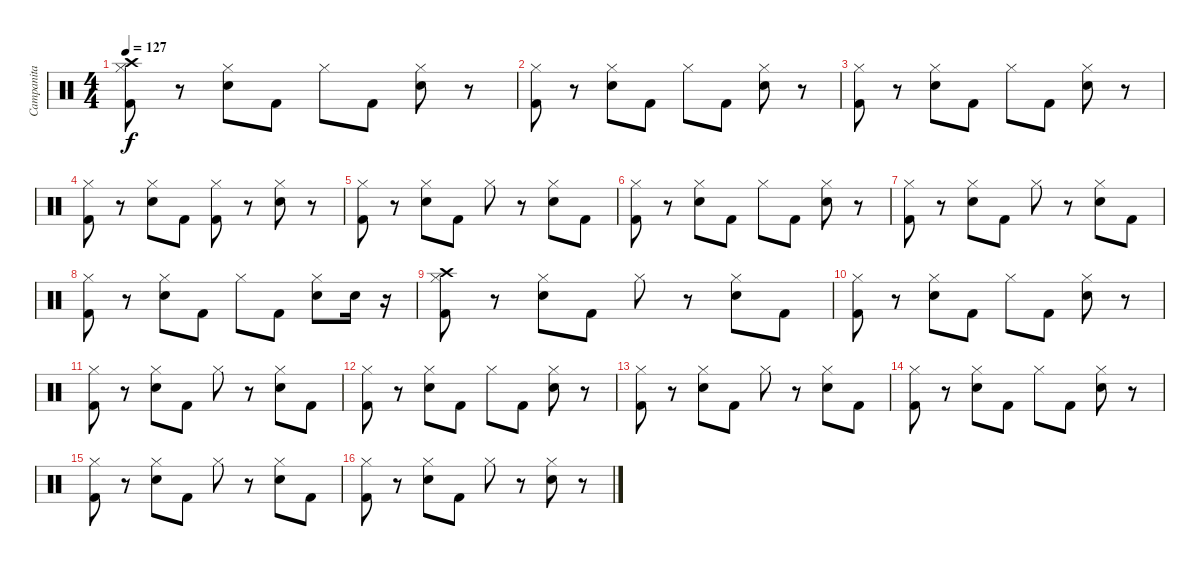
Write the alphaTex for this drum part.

\track ("Campanita" "Campanita") {instrument percussion}
\staff {score}
\articulation defaults
\ts (4 4)
\tempo 127
\clef neutral
\ks c
("Kick (hit) 2" "Hi-Hat (closed)" "Crash high (hit)").8{dy f} r.8 ("Electric Snare (hit)" "Hi-Hat (closed)").8 "Kick (hit) 2".8 "Hi-Hat (closed)".8 "Kick (hit) 2".8 ("Electric Snare (hit)" "Hi-Hat (closed)").8 r.8 |
("Kick (hit) 2" "Hi-Hat (closed)").8 r.8 ("Electric Snare (hit)" "Hi-Hat (closed)").8 "Kick (hit) 2".8 "Hi-Hat (closed)".8 "Kick (hit) 2".8 ("Electric Snare (hit)" "Hi-Hat (closed)").8 r.8 |
("Kick (hit) 2" "Hi-Hat (closed)").8 r.8 ("Electric Snare (hit)" "Hi-Hat (closed)").8 "Kick (hit) 2".8 "Hi-Hat (closed)".8 "Kick (hit) 2".8 ("Electric Snare (hit)" "Hi-Hat (closed)").8 r.8 |
("Kick (hit) 2" "Hi-Hat (closed)").8 r.8 ("Electric Snare (hit)" "Hi-Hat (closed)").8 "Kick (hit) 2".8 ("Kick (hit) 2" "Hi-Hat (closed)").8 r.8 ("Electric Snare (hit)" "Hi-Hat (closed)").8 r.8 |
("Kick (hit) 2" "Hi-Hat (closed)").8 r.8 ("Electric Snare (hit)" "Hi-Hat (closed)").8 "Kick (hit) 2".8 "Hi-Hat (closed)".8 r.8 ("Electric Snare (hit)" "Hi-Hat (closed)").8 "Kick (hit) 2".8 |
("Kick (hit) 2" "Hi-Hat (closed)").8 r.8 ("Electric Snare (hit)" "Hi-Hat (closed)").8 "Kick (hit) 2".8 "Hi-Hat (closed)".8 "Kick (hit) 2".8 ("Electric Snare (hit)" "Hi-Hat (closed)").8 r.8 |
("Kick (hit) 2" "Hi-Hat (closed)").8 r.8 ("Electric Snare (hit)" "Hi-Hat (closed)").8 "Kick (hit) 2".8 "Hi-Hat (closed)".8 r.8 ("Electric Snare (hit)" "Hi-Hat (closed)").8 "Kick (hit) 2".8 |
("Kick (hit) 2" "Hi-Hat (closed)").8 r.8 ("Electric Snare (hit)" "Hi-Hat (closed)").8 "Kick (hit) 2".8 "Hi-Hat (closed)".8 "Kick (hit) 2".8 ("Electric Snare (hit)" "Hi-Hat (closed)").8 "Electric Snare (hit)".16 r.16 |
("Kick (hit) 2" "Hi-Hat (closed)" "Crash high (hit)").8 r.8 ("Electric Snare (hit)" "Hi-Hat (closed)").8 "Kick (hit) 2".8 "Hi-Hat (closed)".8 r.8 ("Electric Snare (hit)" "Hi-Hat (closed)").8 "Kick (hit) 2".8 |
("Kick (hit) 2" "Hi-Hat (closed)").8 r.8 ("Electric Snare (hit)" "Hi-Hat (closed)").8 "Kick (hit) 2".8 "Hi-Hat (closed)".8 "Kick (hit) 2".8 ("Electric Snare (hit)" "Hi-Hat (closed)").8 r.8 |
("Kick (hit) 2" "Hi-Hat (closed)").8 r.8 ("Electric Snare (hit)" "Hi-Hat (closed)").8 "Kick (hit) 2".8 "Hi-Hat (closed)".8 r.8 ("Electric Snare (hit)" "Hi-Hat (closed)").8 "Kick (hit) 2".8 |
("Kick (hit) 2" "Hi-Hat (closed)").8 r.8 ("Electric Snare (hit)" "Hi-Hat (closed)").8 "Kick (hit) 2".8 "Hi-Hat (closed)".8 "Kick (hit) 2".8 ("Electric Snare (hit)" "Hi-Hat (closed)").8 r.8 |
("Kick (hit) 2" "Hi-Hat (closed)").8 r.8 ("Electric Snare (hit)" "Hi-Hat (closed)").8 "Kick (hit) 2".8 "Hi-Hat (closed)".8 r.8 ("Electric Snare (hit)" "Hi-Hat (closed)").8 "Kick (hit) 2".8 |
("Kick (hit) 2" "Hi-Hat (closed)").8 r.8 ("Electric Snare (hit)" "Hi-Hat (closed)").8 "Kick (hit) 2".8 "Hi-Hat (closed)".8 "Kick (hit) 2".8 ("Electric Snare (hit)" "Hi-Hat (closed)").8 r.8 |
("Kick (hit) 2" "Hi-Hat (closed)").8 r.8 ("Electric Snare (hit)" "Hi-Hat (closed)").8 "Kick (hit) 2".8 "Hi-Hat (closed)".8 r.8 ("Electric Snare (hit)" "Hi-Hat (closed)").8 "Kick (hit) 2".8 |
("Kick (hit) 2" "Hi-Hat (closed)").8 r.8 ("Electric Snare (hit)" "Hi-Hat (closed)").8 "Kick (hit) 2".8 "Hi-Hat (closed)".8 r.8 ("Electric Snare (hit)" "Hi-Hat (closed)").8 r.8
